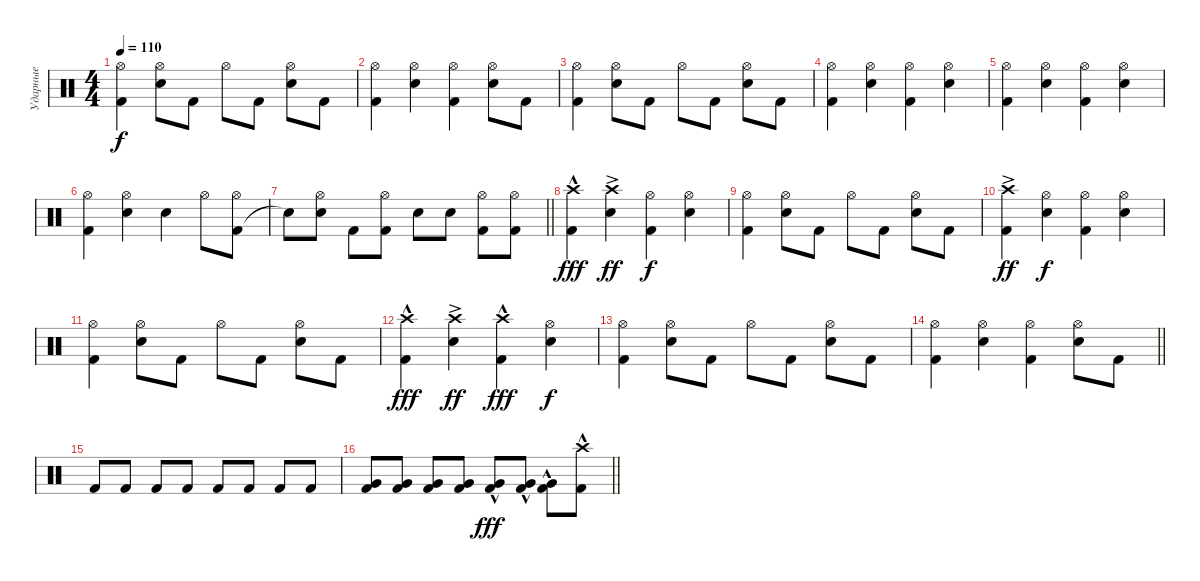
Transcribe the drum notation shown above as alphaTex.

\track ("Ударные" "Ударные") {instrument percussion}
\staff {score}
\articulation defaults
\ts (4 4)
\tempo 110
\clef neutral
\ks c
("Kick (hit) 2" "Hi-Hat (open)").4{dy f} ("Snare (hit) 2" "Hi-Hat (open)").8 "Kick (hit) 2".8 "Hi-Hat (open)".8 "Kick (hit) 2".8 ("Snare (hit) 2" "Hi-Hat (open)").8 "Kick (hit) 2".8 |
("Kick (hit) 2" "Hi-Hat (open)").4 ("Snare (hit) 2" "Hi-Hat (open)").4 ("Kick (hit) 2" "Hi-Hat (open)").4 ("Snare (hit) 2" "Hi-Hat (open)").8 "Kick (hit) 2".8 |
("Kick (hit) 2" "Hi-Hat (open)").4 ("Snare (hit) 2" "Hi-Hat (open)").8 "Kick (hit) 2".8 "Hi-Hat (open)".8 "Kick (hit) 2".8 ("Snare (hit) 2" "Hi-Hat (open)").8 "Kick (hit) 2".8 |
("Kick (hit) 2" "Hi-Hat (open)").4 ("Snare (hit) 2" "Hi-Hat (open)").4 ("Kick (hit) 2" "Hi-Hat (open)").4 ("Snare (hit) 2" "Hi-Hat (open)").4 |
("Kick (hit) 2" "Hi-Hat (open)").4 ("Snare (hit) 2" "Hi-Hat (open)").4 ("Kick (hit) 2" "Hi-Hat (open)").4 ("Snare (hit) 2" "Hi-Hat (open)").4 |
("Kick (hit) 2" "Hi-Hat (open)").4 ("Snare (hit) 2" "Hi-Hat (open)").4 "Snare (hit) 2".4 "Hi-Hat (open)".8 ("Kick (hit) 2" "Hi-Hat (open)").8 |
\barLineRight lightlight "Snare (hit)"{t}.8
("Snare (hit) 2" "Hi-Hat (open)").8 "Kick (hit) 2".8 ("Kick (hit) 2" "Hi-Hat (open)").8 "Snare (hit) 2".8 "Snare (hit) 2".8 ("Kick (hit) 2" "Hi-Hat (open)").8 ("Kick (hit) 2" "Hi-Hat (open)").8 |
("Kick (hit) 2" "Crash high (hit)"{hac}).4{dy fff} ("Snare (hit) 2" "Crash high (hit)"{ac}).4{dy ff} ("Kick (hit) 2" "Hi-Hat (open)").4{dy f} ("Snare (hit) 2" "Hi-Hat (open)").4 |
("Kick (hit) 2" "Hi-Hat (open)").4 ("Snare (hit) 2" "Hi-Hat (open)").8 "Kick (hit) 2".8 "Hi-Hat (open)".8 "Kick (hit) 2".8 ("Snare (hit) 2" "Hi-Hat (open)").8 "Kick (hit) 2".8 |
("Kick (hit) 2" "Crash high (hit)"{ac}).4{dy ff} ("Snare (hit) 2" "Hi-Hat (open)").4{dy f} ("Kick (hit) 2" "Hi-Hat (open)").4 ("Snare (hit) 2" "Hi-Hat (open)").4 |
("Kick (hit) 2" "Hi-Hat (open)").4 ("Snare (hit) 2" "Hi-Hat (open)").8 "Kick (hit) 2".8 "Hi-Hat (open)".8 "Kick (hit) 2".8 ("Snare (hit) 2" "Hi-Hat (open)").8 "Kick (hit) 2".8 |
("Kick (hit) 2" "Crash high (hit)"{hac}).4{dy fff} ("Snare (hit) 2" "Crash high (hit)"{ac}).4{dy ff} ("Kick (hit) 2" "Crash high (hit)"{hac}).4{dy fff} ("Snare (hit) 2" "Hi-Hat (open)").4{dy f} |
("Kick (hit) 2" "Hi-Hat (open)").4 ("Snare (hit) 2" "Hi-Hat (open)").8 "Kick (hit) 2".8 "Hi-Hat (open)".8 "Kick (hit) 2".8 ("Snare (hit) 2" "Hi-Hat (open)").8 "Kick (hit) 2".8 |
\barLineRight lightlight
("Kick (hit) 2" "Hi-Hat (open)").4 ("Snare (hit) 2" "Hi-Hat (open)").4 ("Kick (hit) 2" "Hi-Hat (open)").4 ("Snare (hit) 2" "Hi-Hat (open)").8 "Kick (hit) 2".8 |
"Kick (hit) 2".8 "Kick (hit) 2".8 "Kick (hit) 2".8 "Kick (hit) 2".8 "Kick (hit) 2".8 "Kick (hit) 2".8 "Kick (hit) 2".8 "Kick (hit) 2".8 |
\barLineRight lightlight
("Kick (hit) 2" "Very Low Tom (hit)").8 ("Kick (hit) 2" "Very Low Tom (hit)").8 ("Kick (hit) 2" "Very Low Tom (hit)").8 ("Kick (hit) 2" "Very Low Tom (hit)").8 ("Kick (hit) 2" "Very Low Tom (hit)"{hac}).8{dy fff} ("Kick (hit) 2" "Very Low Tom (hit)"{hac}).8 ("Kick (hit) 2" "Very Low Tom (hit)"{hac}).8 ("Kick (hit) 2" "Crash high (hit)"{hac}).8
